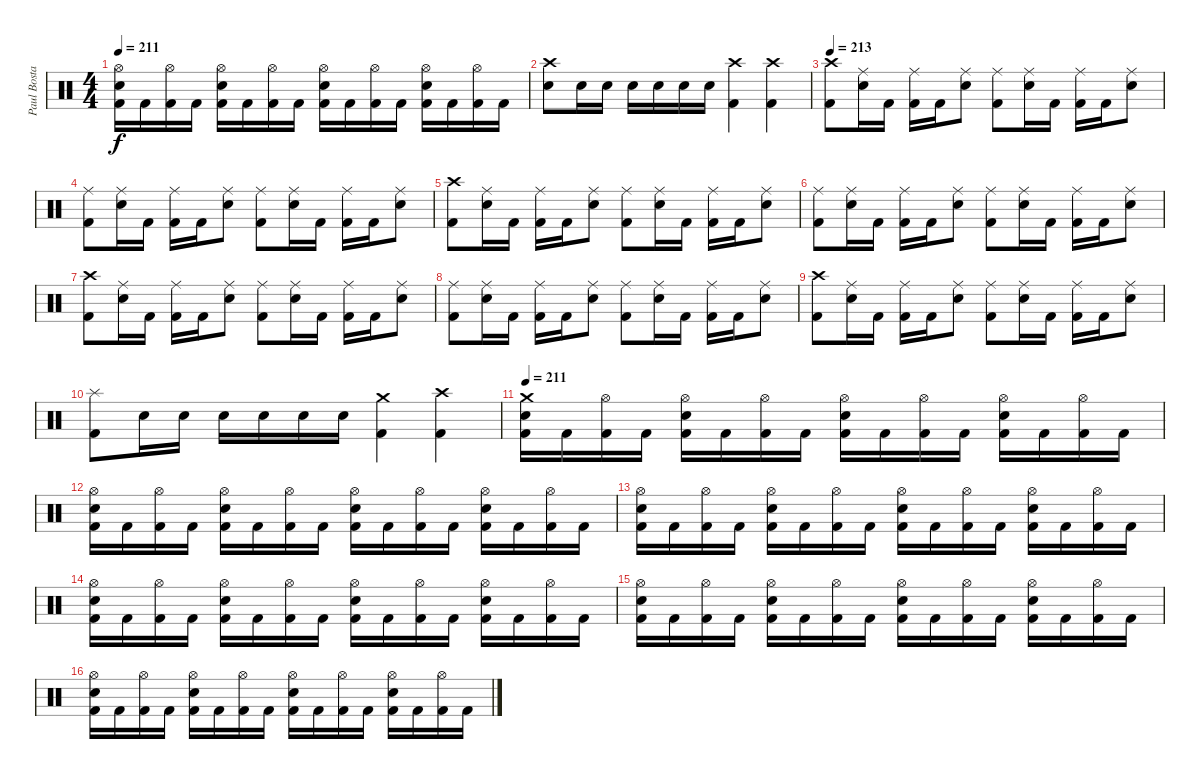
\track ("Paul Bostaph" "Paul Bosta") {instrument percussion}
\staff {score}
\articulation defaults
\ts (4 4)
\tempo 211
\clef neutral
\ks c
("Kick (hit) 2" "Electric Snare (hit)" "Hi-Hat (open)").16{dy f} "Kick (hit) 2".16 ("Kick (hit) 2" "Hi-Hat (open)").16 "Kick (hit) 2".16 ("Kick (hit) 2" "Electric Snare (hit)" "Hi-Hat (open)").16 "Kick (hit) 2".16 ("Kick (hit) 2" "Hi-Hat (open)").16 "Kick (hit) 2".16 ("Kick (hit) 2" "Electric Snare (hit)" "Hi-Hat (open)").16 "Kick (hit) 2".16 ("Kick (hit) 2" "Hi-Hat (open)").16 "Kick (hit) 2".16 ("Kick (hit) 2" "Electric Snare (hit)" "Hi-Hat (open)").16 "Kick (hit) 2".16 ("Kick (hit) 2" "Hi-Hat (open)").16 "Kick (hit) 2".16 |
("Crash high (hit)" "Electric Snare (hit)").8 "Electric Snare (hit)".16 "Electric Snare (hit)".16 "Electric Snare (hit)".16 "Electric Snare (hit)".16 "Electric Snare (hit)".16 "Electric Snare (hit)".16 ("Crash high (hit)" "Kick (hit) 2").4 ("Crash high (hit)" "Kick (hit) 2").4 |
\tempo 213
("Crash high (hit)" "Kick (hit) 2").8 ("Ride (middle)" "Electric Snare (hit)").16 "Kick (hit) 2".16 ("Ride (middle)" "Kick (hit) 2").16 "Kick (hit) 2".16 ("Ride (middle)" "Electric Snare (hit)").8 ("Ride (middle)" "Kick (hit) 2").8 ("Ride (middle)" "Electric Snare (hit)").16 "Kick (hit) 2".16 ("Ride (middle)" "Kick (hit) 2").16 "Kick (hit) 2".16 ("Ride (middle)" "Electric Snare (hit)").8 |
("Ride (middle)" "Kick (hit) 2").8 ("Ride (middle)" "Electric Snare (hit)").16 "Kick (hit) 2".16 ("Ride (middle)" "Kick (hit) 2").16 "Kick (hit) 2".16 ("Ride (middle)" "Electric Snare (hit)").8 ("Ride (middle)" "Kick (hit) 2").8 ("Ride (middle)" "Electric Snare (hit)").16 "Kick (hit) 2".16 ("Ride (middle)" "Kick (hit) 2").16 "Kick (hit) 2".16 ("Ride (middle)" "Electric Snare (hit)").8 |
("Crash high (hit)" "Kick (hit) 2").8 ("Ride (middle)" "Electric Snare (hit)").16 "Kick (hit) 2".16 ("Ride (middle)" "Kick (hit) 2").16 "Kick (hit) 2".16 ("Ride (middle)" "Electric Snare (hit)").8 ("Ride (middle)" "Kick (hit) 2").8 ("Ride (middle)" "Electric Snare (hit)").16 "Kick (hit) 2".16 ("Ride (middle)" "Kick (hit) 2").16 "Kick (hit) 2".16 ("Ride (middle)" "Electric Snare (hit)").8 |
("Ride (middle)" "Kick (hit) 2").8 ("Ride (middle)" "Electric Snare (hit)").16 "Kick (hit) 2".16 ("Ride (middle)" "Kick (hit) 2").16 "Kick (hit) 2".16 ("Ride (middle)" "Electric Snare (hit)").8 ("Ride (middle)" "Kick (hit) 2").8 ("Ride (middle)" "Electric Snare (hit)").16 "Kick (hit) 2".16 ("Ride (middle)" "Kick (hit) 2").16 "Kick (hit) 2".16 ("Ride (middle)" "Electric Snare (hit)").8 |
("Crash high (hit)" "Kick (hit) 2").8 ("Ride (middle)" "Electric Snare (hit)").16 "Kick (hit) 2".16 ("Ride (middle)" "Kick (hit) 2").16 "Kick (hit) 2".16 ("Ride (middle)" "Electric Snare (hit)").8 ("Ride (middle)" "Kick (hit) 2").8 ("Ride (middle)" "Electric Snare (hit)").16 "Kick (hit) 2".16 ("Ride (middle)" "Kick (hit) 2").16 "Kick (hit) 2".16 ("Ride (middle)" "Electric Snare (hit)").8 |
("Ride (middle)" "Kick (hit) 2").8 ("Ride (middle)" "Electric Snare (hit)").16 "Kick (hit) 2".16 ("Ride (middle)" "Kick (hit) 2").16 "Kick (hit) 2".16 ("Ride (middle)" "Electric Snare (hit)").8 ("Ride (middle)" "Kick (hit) 2").8 ("Ride (middle)" "Electric Snare (hit)").16 "Kick (hit) 2".16 ("Ride (middle)" "Kick (hit) 2").16 "Kick (hit) 2".16 ("Ride (middle)" "Electric Snare (hit)").8 |
("Crash high (hit)" "Kick (hit) 2").8 ("Ride (middle)" "Electric Snare (hit)").16 "Kick (hit) 2".16 ("Ride (middle)" "Kick (hit) 2").16 "Kick (hit) 2".16 ("Ride (middle)" "Electric Snare (hit)").8 ("Ride (middle)" "Kick (hit) 2").8 ("Ride (middle)" "Electric Snare (hit)").16 "Kick (hit) 2".16 ("Ride (middle)" "Kick (hit) 2").16 "Kick (hit) 2".16 ("Ride (middle)" "Electric Snare (hit)").8 |
("Splash (hit)" "Kick (hit) 2").8 "Electric Snare (hit)".16 "Electric Snare (hit)".16 "Electric Snare (hit)".16 "Electric Snare (hit)".16 "Electric Snare (hit)".16 "Electric Snare (hit)".16 ("Crash medium (hit)" "Kick (hit) 2").4 ("Crash high (hit)" "Kick (hit) 2").4 |
\tempo 211
("Kick (hit) 2" "Electric Snare (hit)" "Crash medium (hit)").16 "Kick (hit) 2".16 ("Kick (hit) 2" "Hi-Hat (open)").16 "Kick (hit) 2".16 ("Kick (hit) 2" "Electric Snare (hit)" "Hi-Hat (open)").16 "Kick (hit) 2".16 ("Kick (hit) 2" "Hi-Hat (open)").16 "Kick (hit) 2".16 ("Kick (hit) 2" "Electric Snare (hit)" "Hi-Hat (open)").16 "Kick (hit) 2".16 ("Kick (hit) 2" "Hi-Hat (open)").16 "Kick (hit) 2".16 ("Kick (hit) 2" "Electric Snare (hit)" "Hi-Hat (open)").16 "Kick (hit) 2".16 ("Kick (hit) 2" "Hi-Hat (open)").16 "Kick (hit) 2".16 |
("Kick (hit) 2" "Electric Snare (hit)" "Hi-Hat (open)").16 "Kick (hit) 2".16 ("Kick (hit) 2" "Hi-Hat (open)").16 "Kick (hit) 2".16 ("Kick (hit) 2" "Electric Snare (hit)" "Hi-Hat (open)").16 "Kick (hit) 2".16 ("Kick (hit) 2" "Hi-Hat (open)").16 "Kick (hit) 2".16 ("Kick (hit) 2" "Electric Snare (hit)" "Hi-Hat (open)").16 "Kick (hit) 2".16 ("Kick (hit) 2" "Hi-Hat (open)").16 "Kick (hit) 2".16 ("Kick (hit) 2" "Electric Snare (hit)" "Hi-Hat (open)").16 "Kick (hit) 2".16 ("Kick (hit) 2" "Hi-Hat (open)").16 "Kick (hit) 2".16 |
("Kick (hit) 2" "Electric Snare (hit)" "Hi-Hat (open)").16 "Kick (hit) 2".16 ("Kick (hit) 2" "Hi-Hat (open)").16 "Kick (hit) 2".16 ("Kick (hit) 2" "Electric Snare (hit)" "Hi-Hat (open)").16 "Kick (hit) 2".16 ("Kick (hit) 2" "Hi-Hat (open)").16 "Kick (hit) 2".16 ("Kick (hit) 2" "Electric Snare (hit)" "Hi-Hat (open)").16 "Kick (hit) 2".16 ("Kick (hit) 2" "Hi-Hat (open)").16 "Kick (hit) 2".16 ("Kick (hit) 2" "Electric Snare (hit)" "Hi-Hat (open)").16 "Kick (hit) 2".16 ("Kick (hit) 2" "Hi-Hat (open)").16 "Kick (hit) 2".16 |
("Kick (hit) 2" "Electric Snare (hit)" "Hi-Hat (open)").16 "Kick (hit) 2".16 ("Kick (hit) 2" "Hi-Hat (open)").16 "Kick (hit) 2".16 ("Kick (hit) 2" "Electric Snare (hit)" "Hi-Hat (open)").16 "Kick (hit) 2".16 ("Kick (hit) 2" "Hi-Hat (open)").16 "Kick (hit) 2".16 ("Kick (hit) 2" "Electric Snare (hit)" "Hi-Hat (open)").16 "Kick (hit) 2".16 ("Kick (hit) 2" "Hi-Hat (open)").16 "Kick (hit) 2".16 ("Kick (hit) 2" "Electric Snare (hit)" "Hi-Hat (open)").16 "Kick (hit) 2".16 ("Kick (hit) 2" "Hi-Hat (open)").16 "Kick (hit) 2".16 |
("Kick (hit) 2" "Electric Snare (hit)" "Hi-Hat (open)").16 "Kick (hit) 2".16 ("Kick (hit) 2" "Hi-Hat (open)").16 "Kick (hit) 2".16 ("Kick (hit) 2" "Electric Snare (hit)" "Hi-Hat (open)").16 "Kick (hit) 2".16 ("Kick (hit) 2" "Hi-Hat (open)").16 "Kick (hit) 2".16 ("Kick (hit) 2" "Electric Snare (hit)" "Hi-Hat (open)").16 "Kick (hit) 2".16 ("Kick (hit) 2" "Hi-Hat (open)").16 "Kick (hit) 2".16 ("Kick (hit) 2" "Electric Snare (hit)" "Hi-Hat (open)").16 "Kick (hit) 2".16 ("Kick (hit) 2" "Hi-Hat (open)").16 "Kick (hit) 2".16 |
("Kick (hit) 2" "Electric Snare (hit)" "Hi-Hat (open)").16 "Kick (hit) 2".16 ("Kick (hit) 2" "Hi-Hat (open)").16 "Kick (hit) 2".16 ("Kick (hit) 2" "Electric Snare (hit)" "Hi-Hat (open)").16 "Kick (hit) 2".16 ("Kick (hit) 2" "Hi-Hat (open)").16 "Kick (hit) 2".16 ("Kick (hit) 2" "Electric Snare (hit)" "Hi-Hat (open)").16 "Kick (hit) 2".16 ("Kick (hit) 2" "Hi-Hat (open)").16 "Kick (hit) 2".16 ("Kick (hit) 2" "Electric Snare (hit)" "Hi-Hat (open)").16 "Kick (hit) 2".16 ("Kick (hit) 2" "Hi-Hat (open)").16 "Kick (hit) 2".16
